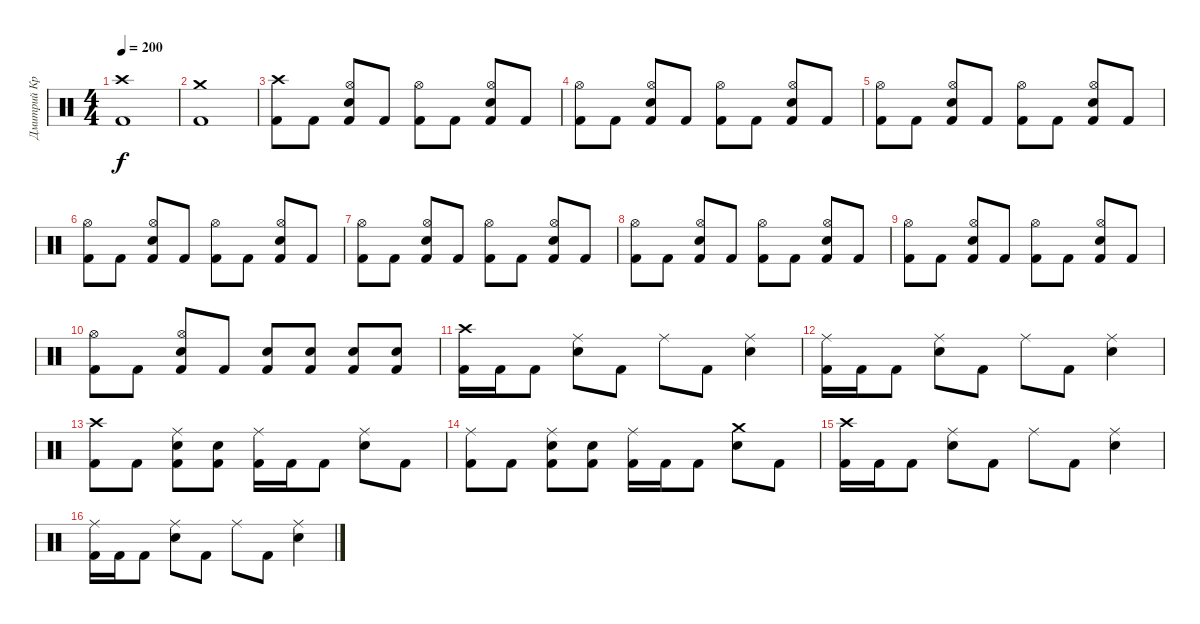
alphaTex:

\track ("Дмитрий Кривенков" "Дмитрий Кр") {instrument percussion}
\staff {score}
\articulation defaults
\ts (4 4)
\tempo 200
\clef neutral
\ks c
("Crash high (hit)" "Kick (hit) 2").1{dy f} |
("Crash medium (hit)" "Kick (hit) 2").1 |
("Crash high (hit)" "Kick (hit) 2").8 "Kick (hit) 2".8 ("Hi-Hat (open)" "Electric Snare (hit)" "Kick (hit) 2").8 "Kick (hit) 2".8 ("Hi-Hat (open)" "Kick (hit) 2").8 "Kick (hit) 2".8 ("Hi-Hat (open)" "Electric Snare (hit)" "Kick (hit) 2").8 "Kick (hit) 2".8 |
("Hi-Hat (open)" "Kick (hit) 2").8 "Kick (hit) 2".8 ("Hi-Hat (open)" "Electric Snare (hit)" "Kick (hit) 2").8 "Kick (hit) 2".8 ("Hi-Hat (open)" "Kick (hit) 2").8 "Kick (hit) 2".8 ("Hi-Hat (open)" "Electric Snare (hit)" "Kick (hit) 2").8 "Kick (hit) 2".8 |
("Hi-Hat (open)" "Kick (hit) 2").8 "Kick (hit) 2".8 ("Hi-Hat (open)" "Electric Snare (hit)" "Kick (hit) 2").8 "Kick (hit) 2".8 ("Hi-Hat (open)" "Kick (hit) 2").8 "Kick (hit) 2".8 ("Hi-Hat (open)" "Electric Snare (hit)" "Kick (hit) 2").8 "Kick (hit) 2".8 |
("Hi-Hat (open)" "Kick (hit) 2").8 "Kick (hit) 2".8 ("Hi-Hat (open)" "Electric Snare (hit)" "Kick (hit) 2").8 "Kick (hit) 2".8 ("Hi-Hat (open)" "Kick (hit) 2").8 "Kick (hit) 2".8 ("Hi-Hat (open)" "Electric Snare (hit)" "Kick (hit) 2").8 "Kick (hit) 2".8 |
("Hi-Hat (open)" "Kick (hit) 2").8 "Kick (hit) 2".8 ("Hi-Hat (open)" "Electric Snare (hit)" "Kick (hit) 2").8 "Kick (hit) 2".8 ("Hi-Hat (open)" "Kick (hit) 2").8 "Kick (hit) 2".8 ("Hi-Hat (open)" "Electric Snare (hit)" "Kick (hit) 2").8 "Kick (hit) 2".8 |
("Hi-Hat (open)" "Kick (hit) 2").8 "Kick (hit) 2".8 ("Hi-Hat (open)" "Electric Snare (hit)" "Kick (hit) 2").8 "Kick (hit) 2".8 ("Hi-Hat (open)" "Kick (hit) 2").8 "Kick (hit) 2".8 ("Hi-Hat (open)" "Electric Snare (hit)" "Kick (hit) 2").8 "Kick (hit) 2".8 |
("Hi-Hat (open)" "Kick (hit) 2").8 "Kick (hit) 2".8 ("Hi-Hat (open)" "Electric Snare (hit)" "Kick (hit) 2").8 "Kick (hit) 2".8 ("Hi-Hat (open)" "Kick (hit) 2").8 "Kick (hit) 2".8 ("Hi-Hat (open)" "Electric Snare (hit)" "Kick (hit) 2").8 "Kick (hit) 2".8 |
("Hi-Hat (open)" "Kick (hit) 2").8 "Kick (hit) 2".8 ("Hi-Hat (open)" "Electric Snare (hit)" "Kick (hit) 2").8 "Kick (hit) 2".8 ("Electric Snare (hit)" "Kick (hit) 2").8 ("Electric Snare (hit)" "Kick (hit) 2").8 ("Electric Snare (hit)" "Kick (hit) 2").8 ("Electric Snare (hit)" "Kick (hit) 2").8 |
("Crash high (hit)" "Kick (hit) 2").16 "Kick (hit) 2".16 "Kick (hit) 2".8 ("Ride (middle)" "Electric Snare (hit)").8 "Kick (hit) 2".8 "Ride (middle)".8 "Kick (hit) 2".8 ("Ride (middle)" "Electric Snare (hit)").4 |
("Ride (middle)" "Kick (hit) 2").16 "Kick (hit) 2".16 "Kick (hit) 2".8 ("Ride (middle)" "Electric Snare (hit)").8 "Kick (hit) 2".8 "Ride (middle)".8 "Kick (hit) 2".8 ("Ride (middle)" "Electric Snare (hit)").4 |
("Crash high (hit)" "Kick (hit) 2").8 "Kick (hit) 2".8 ("Ride (middle)" "Electric Snare (hit)" "Kick (hit) 2").8 ("Electric Snare (hit)" "Kick (hit) 2").8 ("Ride (middle)" "Kick (hit) 2").16 "Kick (hit) 2".16 "Kick (hit) 2".8 ("Ride (middle)" "Electric Snare (hit)").8 "Kick (hit) 2".8 |
("Ride (middle)" "Kick (hit) 2").8 "Kick (hit) 2".8 ("Ride (middle)" "Electric Snare (hit)" "Kick (hit) 2").8 ("Electric Snare (hit)" "Kick (hit) 2").8 ("Ride (middle)" "Kick (hit) 2").16 "Kick (hit) 2".16 "Kick (hit) 2".8 ("Crash medium (hit)" "Electric Snare (hit)").8 "Kick (hit) 2".8 |
("Crash high (hit)" "Kick (hit) 2").16 "Kick (hit) 2".16 "Kick (hit) 2".8 ("Ride (middle)" "Electric Snare (hit)").8 "Kick (hit) 2".8 "Ride (middle)".8 "Kick (hit) 2".8 ("Ride (middle)" "Electric Snare (hit)").4 |
("Ride (middle)" "Kick (hit) 2").16 "Kick (hit) 2".16 "Kick (hit) 2".8 ("Ride (middle)" "Electric Snare (hit)").8 "Kick (hit) 2".8 "Ride (middle)".8 "Kick (hit) 2".8 ("Ride (middle)" "Electric Snare (hit)").4
